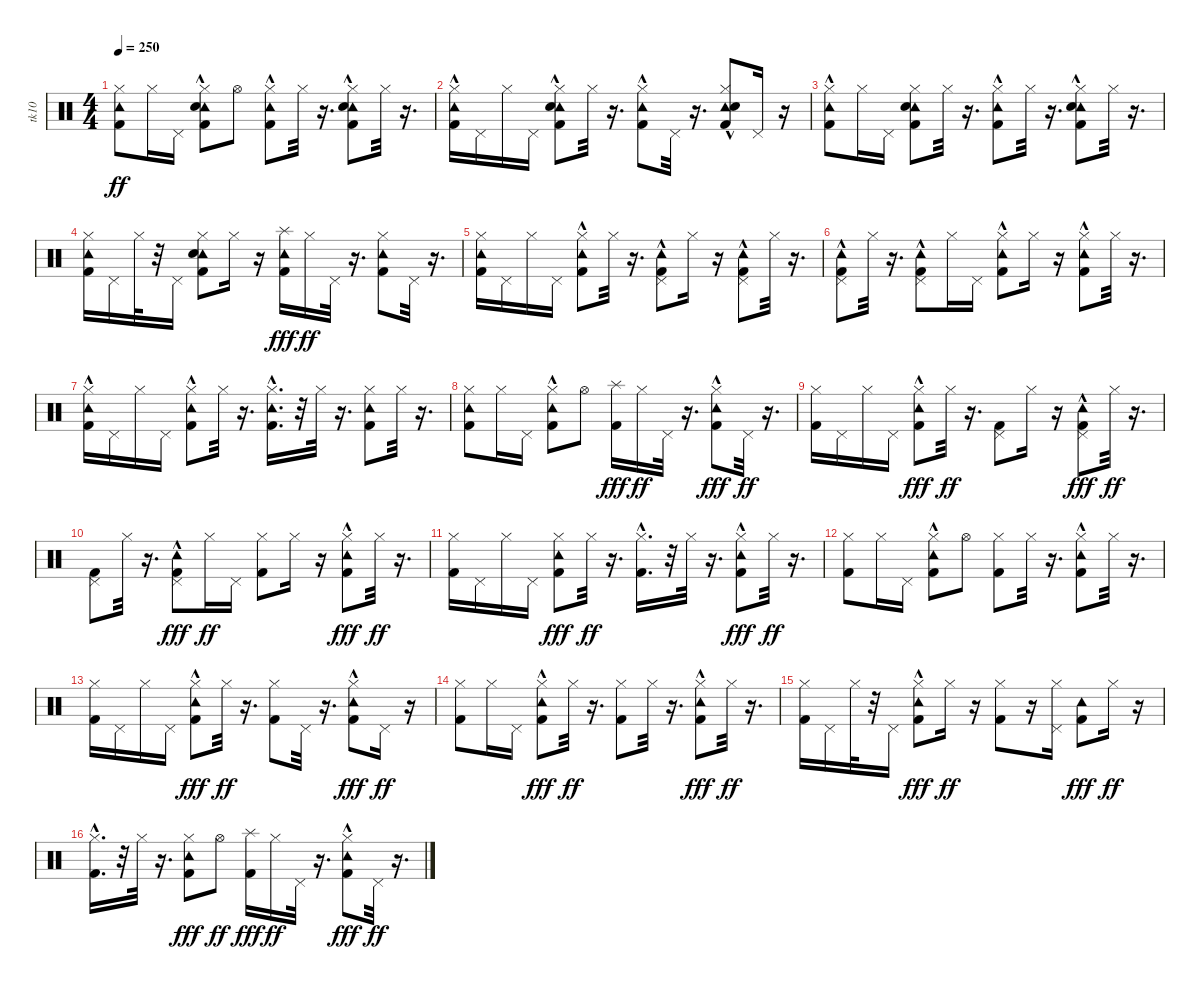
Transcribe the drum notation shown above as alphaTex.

\track ("tk10" "tk10") {instrument percussion}
\staff {score}
\articulation defaults
\ts (4 4)
\tempo 250
\clef neutral
\ks c
("Kick (hit) 2" "Tambourine (hit)" "Hi-Hat (closed)").8{dy ff} "Hi-Hat (closed)".16 "Pedal Hi-Hat (hit)".16 ("Kick (hit) 2" "Tambourine (hit)"{hac} "Hi-Hat (closed)" "Electric Snare (hit)"{hac}).8 "Hi-Hat (open)".8 ("Kick (hit) 2" "Tambourine (hit)"{hac} "Hi-Hat (closed)").8 "Hi-Hat (closed)".32 r.16{d} ("Kick (hit) 2" "Tambourine (hit)" "Hi-Hat (closed)" "Electric Snare (hit)"{hac}).8 "Hi-Hat (closed)".32 r.16{d} |
("Kick (hit) 2" "Tambourine (hit)"{hac} "Hi-Hat (closed)").16 "Pedal Hi-Hat (hit)".16 "Hi-Hat (closed)".16 "Pedal Hi-Hat (hit)".16 ("Kick (hit) 2"{hac} "Tambourine (hit)"{hac} "Hi-Hat (closed)" "Electric Snare (hit)"{hac}).8 "Hi-Hat (closed)".32 r.16{d} ("Kick (hit) 2" "Tambourine (hit)"{hac} "Hi-Hat (closed)").8 "Pedal Hi-Hat (hit)".32 r.16{d} ("Kick (hit) 2" "Tambourine (hit)"{hac} "Hi-Hat (closed)" "Electric Snare (hit)"{hac}).8 "Pedal Hi-Hat (hit)".16 r.16 |
("Kick (hit) 2" "Tambourine (hit)"{hac} "Hi-Hat (closed)").8 "Hi-Hat (closed)".16 "Pedal Hi-Hat (hit)".16 ("Kick (hit) 2" "Tambourine (hit)" "Hi-Hat (closed)" "Electric Snare (hit)").8 "Hi-Hat (closed)".32 r.16{d} ("Kick (hit) 2" "Tambourine (hit)"{hac} "Hi-Hat (closed)").8 "Hi-Hat (closed)".32 r.16{d} ("Kick (hit) 2"{hac} "Tambourine (hit)" "Hi-Hat (closed)" "Electric Snare (hit)"{hac}).8 "Hi-Hat (closed)".32 r.16{d} |
("Kick (hit) 2" "Tambourine (hit)" "Hi-Hat (closed)").16 "Pedal Hi-Hat (hit)".16 "Hi-Hat (closed)".32 r.32 "Pedal Hi-Hat (hit)".16 ("Kick (hit) 2" "Tambourine (hit)" "Hi-Hat (closed)" "Electric Snare (hit)").8 "Hi-Hat (closed)".16 r.16 ("Kick (hit) 2" "Tambourine (hit)" "Splash (hit)").16{dy fff} "Hi-Hat (closed)".16{dy ff} "Pedal Hi-Hat (hit)".32 r.16{d} ("Kick (hit) 2" "Tambourine (hit)" "Hi-Hat (closed)").8 "Pedal Hi-Hat (hit)".32 r.16{d} |
("Kick (hit) 2" "Tambourine (hit)" "Hi-Hat (closed)").16 "Pedal Hi-Hat (hit)".16 "Hi-Hat (closed)".16 "Pedal Hi-Hat (hit)".16 ("Kick (hit) 2" "Tambourine (hit)"{hac} "Hi-Hat (closed)").8 "Hi-Hat (closed)".32 r.16{d} ("Kick (hit) 2" "Tambourine (hit)"{hac} "Pedal Hi-Hat (hit)").8 "Hi-Hat (closed)".16 r.16 ("Kick (hit) 2" "Tambourine (hit)"{hac} "Pedal Hi-Hat (hit)").8 "Hi-Hat (closed)".32 r.16{d} |
("Kick (hit) 2" "Tambourine (hit)"{hac} "Pedal Hi-Hat (hit)").8 "Hi-Hat (closed)".32 r.16{d} ("Kick (hit) 2" "Tambourine (hit)"{hac} "Pedal Hi-Hat (hit)").8 "Hi-Hat (closed)".16 "Pedal Hi-Hat (hit)".16 ("Kick (hit) 2" "Tambourine (hit)"{hac} "Hi-Hat (closed)").8 "Hi-Hat (closed)".16 r.16 ("Kick (hit) 2" "Tambourine (hit)"{hac} "Hi-Hat (closed)").8 "Hi-Hat (closed)".32 r.16{d} |
("Kick (hit) 2" "Tambourine (hit)"{hac} "Hi-Hat (closed)").16 "Pedal Hi-Hat (hit)".16 "Hi-Hat (closed)".16 "Pedal Hi-Hat (hit)".16 ("Kick (hit) 2" "Tambourine (hit)"{hac} "Hi-Hat (closed)").8 "Hi-Hat (closed)".32 r.16{d} ("Kick (hit) 2"{hac} "Tambourine (hit)"{hac} "Hi-Hat (closed)").16{d} r.32 "Hi-Hat (closed)".32 r.16{d} ("Kick (hit) 2" "Tambourine (hit)" "Hi-Hat (closed)").8 "Hi-Hat (closed)".32 r.16{d} |
("Kick (hit) 2" "Tambourine (hit)" "Hi-Hat (closed)").8 "Hi-Hat (closed)".16 "Pedal Hi-Hat (hit)".16 ("Kick (hit) 2" "Tambourine (hit)"{hac} "Hi-Hat (closed)").8 "Hi-Hat (open)".8 ("Kick (hit) 2" "Splash (hit)").16{dy fff} "Hi-Hat (closed)".16{dy ff} "Pedal Hi-Hat (hit)".32 r.16{d} ("Kick (hit) 2" "Hi-Hat (closed)" "Tambourine (hit)"{hac}).8{dy fff} "Pedal Hi-Hat (hit)".32{dy ff} r.16{d} |
("Kick (hit) 2" "Hi-Hat (closed)").16 "Pedal Hi-Hat (hit)".16 "Hi-Hat (closed)".16 "Pedal Hi-Hat (hit)".16 ("Kick (hit) 2" "Hi-Hat (closed)" "Tambourine (hit)"{hac}).8{dy fff} "Hi-Hat (closed)".32{dy ff} r.16{d} ("Kick (hit) 2" "Pedal Hi-Hat (hit)").8 "Hi-Hat (closed)".16 r.16 ("Kick (hit) 2" "Pedal Hi-Hat (hit)" "Tambourine (hit)"{hac}).8{dy fff} "Hi-Hat (closed)".32{dy ff} r.16{d} |
("Kick (hit) 2" "Pedal Hi-Hat (hit)").8 "Hi-Hat (closed)".32 r.16{d} ("Kick (hit) 2" "Pedal Hi-Hat (hit)" "Tambourine (hit)"{hac}).8{dy fff} "Hi-Hat (closed)".16{dy ff} "Pedal Hi-Hat (hit)".16 ("Kick (hit) 2" "Hi-Hat (closed)").8 "Hi-Hat (closed)".16 r.16 ("Kick (hit) 2" "Hi-Hat (closed)" "Tambourine (hit)"{hac}).8{dy fff} "Hi-Hat (closed)".32{dy ff} r.16{d} |
("Kick (hit) 2" "Hi-Hat (closed)").16 "Pedal Hi-Hat (hit)".16 "Hi-Hat (closed)".16 "Pedal Hi-Hat (hit)".16 ("Kick (hit) 2" "Hi-Hat (closed)" "Tambourine (hit)").8{dy fff} "Hi-Hat (closed)".32{dy ff} r.16{d} ("Kick (hit) 2"{hac} "Hi-Hat (closed)").16{d} r.32 "Hi-Hat (closed)".32 r.16{d} ("Kick (hit) 2" "Hi-Hat (closed)" "Tambourine (hit)"{hac}).8{dy fff} "Hi-Hat (closed)".32{dy ff} r.16{d} |
("Kick (hit) 2" "Hi-Hat (closed)").8 "Hi-Hat (closed)".16 "Pedal Hi-Hat (hit)".16 ("Tambourine (hit)"{hac} "Kick (hit) 2" "Hi-Hat (closed)").8 "Hi-Hat (open)".8 ("Kick (hit) 2" "Hi-Hat (closed)").8 "Hi-Hat (closed)".32 r.16{d} ("Tambourine (hit)"{hac} "Kick (hit) 2" "Hi-Hat (closed)").8 "Hi-Hat (closed)".32 r.16{d} |
("Kick (hit) 2" "Hi-Hat (closed)").16 "Pedal Hi-Hat (hit)".16 "Hi-Hat (closed)".16 "Pedal Hi-Hat (hit)".16 ("Kick (hit) 2"{hac} "Hi-Hat (closed)" "Tambourine (hit)"{hac}).8{dy fff} "Hi-Hat (closed)".32{dy ff} r.16{d} ("Kick (hit) 2" "Hi-Hat (closed)").8 "Pedal Hi-Hat (hit)".32 r.16{d} ("Kick (hit) 2" "Hi-Hat (closed)" "Tambourine (hit)"{hac}).8{dy fff} "Pedal Hi-Hat (hit)".16{dy ff} r.16 |
("Kick (hit) 2" "Hi-Hat (closed)").8 "Hi-Hat (closed)".16 "Pedal Hi-Hat (hit)".16 ("Kick (hit) 2" "Hi-Hat (closed)" "Tambourine (hit)"{hac}).8{dy fff} "Hi-Hat (closed)".32{dy ff} r.16{d} ("Kick (hit) 2" "Hi-Hat (closed)").8 "Hi-Hat (closed)".32 r.16{d} ("Kick (hit) 2"{hac} "Hi-Hat (closed)" "Tambourine (hit)"{hac}).8{dy fff} "Hi-Hat (closed)".32{dy ff} r.16{d} |
("Kick (hit) 2" "Hi-Hat (closed)").16 "Pedal Hi-Hat (hit)".16 "Hi-Hat (closed)".32 r.32 "Pedal Hi-Hat (hit)".16 ("Kick (hit) 2" "Hi-Hat (closed)" "Tambourine (hit)"{hac}).8{dy fff} "Hi-Hat (closed)".16{dy ff} r.16 ("Kick (hit) 2" "Hi-Hat (closed)").8 r.16 ("Hi-Hat (closed)" "Pedal Hi-Hat (hit)").16 ("Kick (hit) 2" "Tambourine (hit)").8{dy fff} "Hi-Hat (closed)".16{dy ff} r.16 |
("Kick (hit) 2"{hac} "Hi-Hat (closed)").16{d} r.32 "Hi-Hat (closed)".32 r.16{d} ("Kick (hit) 2" "Hi-Hat (closed)" "Tambourine (hit)").8{dy fff} "Hi-Hat (open)".8{dy ff} ("Kick (hit) 2" "Splash (hit)").16{dy fff} "Hi-Hat (closed)".16{dy ff} "Pedal Hi-Hat (hit)".32 r.16{d} ("Kick (hit) 2" "Hi-Hat (closed)" "Tambourine (hit)"{hac}).8{dy fff} "Pedal Hi-Hat (hit)".32{dy ff} r.16{d}
